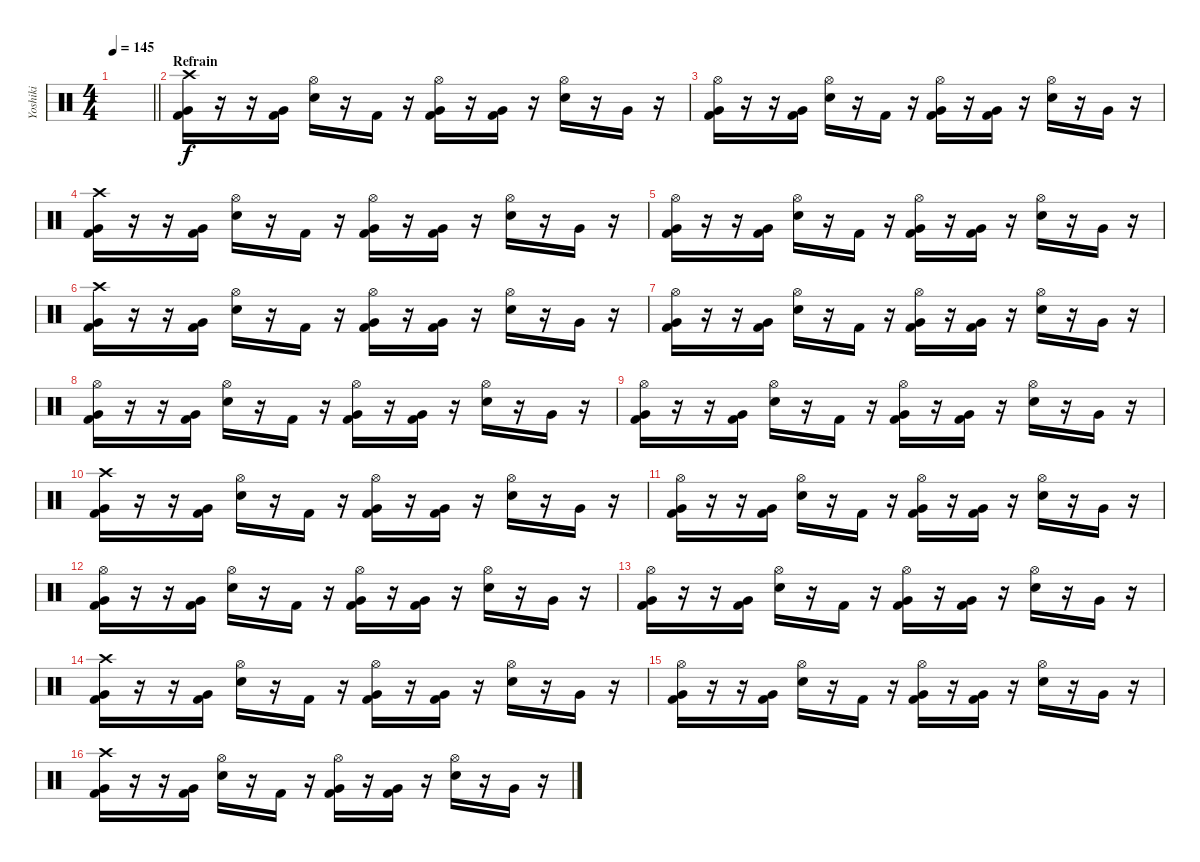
\track ("Yoshiki" "Yoshiki") {instrument percussion}
\staff {score}
\articulation defaults
\ts (4 4)
\tempo 145
\clef neutral
\barLineRight lightlight
\ks c
|
\section ("" "Refrain")
("Crash high (hit)" "Very Low Tom (hit)" "Kick (hit) 2").16 r.16 r.16 ("Very Low Tom (hit)" "Kick (hit) 2").16 ("Hi-Hat (open)" "Snare (hit) 2").16 r.16 "Kick (hit) 2".16 r.16 ("Hi-Hat (open)" "Very Low Tom (hit)" "Kick (hit) 2").16 r.16 ("Very Low Tom (hit)" "Kick (hit) 2").16 r.16 ("Hi-Hat (open)" "Snare (hit) 2").16 r.16 "Very Low Tom (hit)".16 r.16 |
("Hi-Hat (open)" "Very Low Tom (hit)" "Kick (hit) 2").16 r.16 r.16 ("Very Low Tom (hit)" "Kick (hit) 2").16 ("Hi-Hat (open)" "Snare (hit) 2").16 r.16 "Kick (hit) 2".16 r.16 ("Hi-Hat (open)" "Very Low Tom (hit)" "Kick (hit) 2").16 r.16 ("Very Low Tom (hit)" "Kick (hit) 2").16 r.16 ("Hi-Hat (open)" "Snare (hit) 2").16 r.16 "Very Low Tom (hit)".16 r.16 |
("Crash high (hit)" "Very Low Tom (hit)" "Kick (hit) 2").16 r.16 r.16 ("Very Low Tom (hit)" "Kick (hit) 2").16 ("Hi-Hat (open)" "Snare (hit) 2").16 r.16 "Kick (hit) 2".16 r.16 ("Hi-Hat (open)" "Very Low Tom (hit)" "Kick (hit) 2").16 r.16 ("Very Low Tom (hit)" "Kick (hit) 2").16 r.16 ("Hi-Hat (open)" "Snare (hit) 2").16 r.16 "Very Low Tom (hit)".16 r.16 |
("Hi-Hat (open)" "Very Low Tom (hit)" "Kick (hit) 2").16 r.16 r.16 ("Very Low Tom (hit)" "Kick (hit) 2").16 ("Hi-Hat (open)" "Snare (hit) 2").16 r.16 "Kick (hit) 2".16 r.16 ("Hi-Hat (open)" "Very Low Tom (hit)" "Kick (hit) 2").16 r.16 ("Very Low Tom (hit)" "Kick (hit) 2").16 r.16 ("Hi-Hat (open)" "Snare (hit) 2").16 r.16 "Very Low Tom (hit)".16 r.16 |
("Crash high (hit)" "Very Low Tom (hit)" "Kick (hit) 2").16 r.16 r.16 ("Very Low Tom (hit)" "Kick (hit) 2").16 ("Hi-Hat (open)" "Snare (hit) 2").16 r.16 "Kick (hit) 2".16 r.16 ("Hi-Hat (open)" "Very Low Tom (hit)" "Kick (hit) 2").16 r.16 ("Very Low Tom (hit)" "Kick (hit) 2").16 r.16 ("Hi-Hat (open)" "Snare (hit) 2").16 r.16 "Very Low Tom (hit)".16 r.16 |
("Hi-Hat (open)" "Very Low Tom (hit)" "Kick (hit) 2").16 r.16 r.16 ("Very Low Tom (hit)" "Kick (hit) 2").16 ("Hi-Hat (open)" "Snare (hit) 2").16 r.16 "Kick (hit) 2".16 r.16 ("Hi-Hat (open)" "Very Low Tom (hit)" "Kick (hit) 2").16 r.16 ("Very Low Tom (hit)" "Kick (hit) 2").16 r.16 ("Hi-Hat (open)" "Snare (hit) 2").16 r.16 "Very Low Tom (hit)".16 r.16 |
("Hi-Hat (open)" "Very Low Tom (hit)" "Kick (hit) 2").16 r.16 r.16 ("Very Low Tom (hit)" "Kick (hit) 2").16 ("Hi-Hat (open)" "Snare (hit) 2").16 r.16 "Kick (hit) 2".16 r.16 ("Hi-Hat (open)" "Very Low Tom (hit)" "Kick (hit) 2").16 r.16 ("Very Low Tom (hit)" "Kick (hit) 2").16 r.16 ("Hi-Hat (open)" "Snare (hit) 2").16 r.16 "Very Low Tom (hit)".16 r.16 |
("Hi-Hat (open)" "Very Low Tom (hit)" "Kick (hit) 2").16 r.16 r.16 ("Very Low Tom (hit)" "Kick (hit) 2").16 ("Hi-Hat (open)" "Snare (hit) 2").16 r.16 "Kick (hit) 2".16 r.16 ("Hi-Hat (open)" "Very Low Tom (hit)" "Kick (hit) 2").16 r.16 ("Very Low Tom (hit)" "Kick (hit) 2").16 r.16 ("Hi-Hat (open)" "Snare (hit) 2").16 r.16 "Very Low Tom (hit)".16 r.16 |
("Crash high (hit)" "Very Low Tom (hit)" "Kick (hit) 2").16 r.16 r.16 ("Very Low Tom (hit)" "Kick (hit) 2").16 ("Hi-Hat (open)" "Snare (hit) 2").16 r.16 "Kick (hit) 2".16 r.16 ("Hi-Hat (open)" "Very Low Tom (hit)" "Kick (hit) 2").16 r.16 ("Very Low Tom (hit)" "Kick (hit) 2").16 r.16 ("Hi-Hat (open)" "Snare (hit) 2").16 r.16 "Very Low Tom (hit)".16 r.16 |
("Hi-Hat (open)" "Very Low Tom (hit)" "Kick (hit) 2").16 r.16 r.16 ("Very Low Tom (hit)" "Kick (hit) 2").16 ("Hi-Hat (open)" "Snare (hit) 2").16 r.16 "Kick (hit) 2".16 r.16 ("Hi-Hat (open)" "Very Low Tom (hit)" "Kick (hit) 2").16 r.16 ("Very Low Tom (hit)" "Kick (hit) 2").16 r.16 ("Hi-Hat (open)" "Snare (hit) 2").16 r.16 "Very Low Tom (hit)".16 r.16 |
("Hi-Hat (open)" "Very Low Tom (hit)" "Kick (hit) 2").16 r.16 r.16 ("Very Low Tom (hit)" "Kick (hit) 2").16 ("Hi-Hat (open)" "Snare (hit) 2").16 r.16 "Kick (hit) 2".16 r.16 ("Hi-Hat (open)" "Very Low Tom (hit)" "Kick (hit) 2").16 r.16 ("Very Low Tom (hit)" "Kick (hit) 2").16 r.16 ("Hi-Hat (open)" "Snare (hit) 2").16 r.16 "Very Low Tom (hit)".16 r.16 |
("Hi-Hat (open)" "Very Low Tom (hit)" "Kick (hit) 2").16 r.16 r.16 ("Very Low Tom (hit)" "Kick (hit) 2").16 ("Hi-Hat (open)" "Snare (hit) 2").16 r.16 "Kick (hit) 2".16 r.16 ("Hi-Hat (open)" "Very Low Tom (hit)" "Kick (hit) 2").16 r.16 ("Very Low Tom (hit)" "Kick (hit) 2").16 r.16 ("Hi-Hat (open)" "Snare (hit) 2").16 r.16 "Very Low Tom (hit)".16 r.16 |
("Crash high (hit)" "Very Low Tom (hit)" "Kick (hit) 2").16 r.16 r.16 ("Very Low Tom (hit)" "Kick (hit) 2").16 ("Hi-Hat (open)" "Snare (hit) 2").16 r.16 "Kick (hit) 2".16 r.16 ("Hi-Hat (open)" "Very Low Tom (hit)" "Kick (hit) 2").16 r.16 ("Very Low Tom (hit)" "Kick (hit) 2").16 r.16 ("Hi-Hat (open)" "Snare (hit) 2").16 r.16 "Very Low Tom (hit)".16 r.16 |
("Hi-Hat (open)" "Very Low Tom (hit)" "Kick (hit) 2").16 r.16 r.16 ("Very Low Tom (hit)" "Kick (hit) 2").16 ("Hi-Hat (open)" "Snare (hit) 2").16 r.16 "Kick (hit) 2".16 r.16 ("Hi-Hat (open)" "Very Low Tom (hit)" "Kick (hit) 2").16 r.16 ("Very Low Tom (hit)" "Kick (hit) 2").16 r.16 ("Hi-Hat (open)" "Snare (hit) 2").16 r.16 "Very Low Tom (hit)".16 r.16 |
("Crash high (hit)" "Very Low Tom (hit)" "Kick (hit) 2").16 r.16 r.16 ("Very Low Tom (hit)" "Kick (hit) 2").16 ("Hi-Hat (open)" "Snare (hit) 2").16 r.16 "Kick (hit) 2".16 r.16 ("Hi-Hat (open)" "Very Low Tom (hit)" "Kick (hit) 2").16 r.16 ("Very Low Tom (hit)" "Kick (hit) 2").16 r.16 ("Hi-Hat (open)" "Snare (hit) 2").16 r.16 "Very Low Tom (hit)".16 r.16
